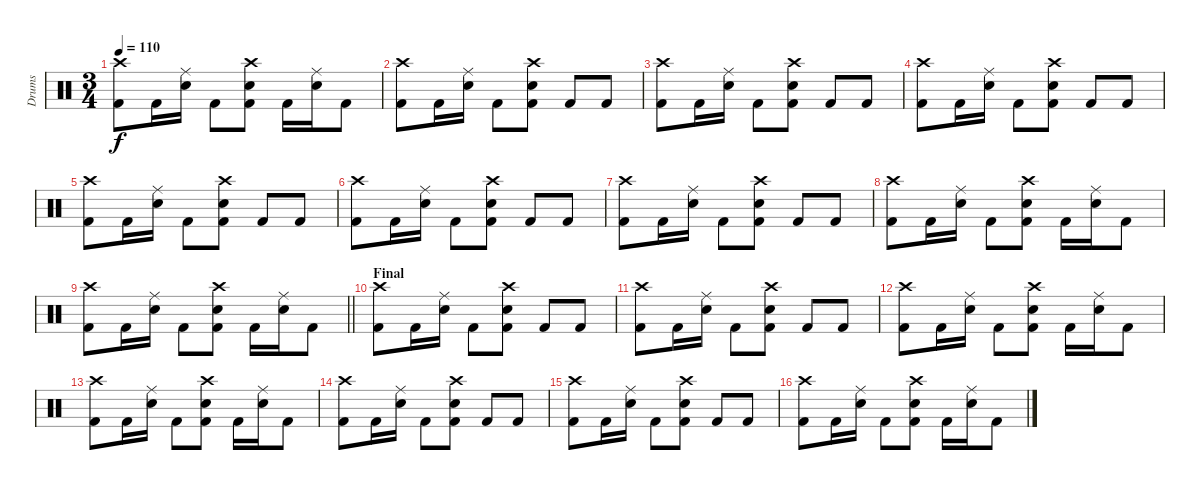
\track ("Drums" "Drums") {instrument percussion}
\staff {score}
\articulation defaults
\ts (3 4)
\tempo 110
\clef neutral
\ks c
("Crash high (hit)" "Kick (hit) 2").8{dy f} "Kick (hit) 2".16 ("Ride (middle)" "Snare (hit) 2").16 "Kick (hit) 2".8 ("Crash high (hit)" "Snare (hit) 2" "Kick (hit) 2").8 "Kick (hit) 2".16 ("Ride (middle)" "Snare (hit) 2").16 "Kick (hit) 2".8 |
("Crash high (hit)" "Kick (hit) 2").8 "Kick (hit) 2".16 ("Ride (middle)" "Snare (hit) 2").16 "Kick (hit) 2".8 ("Crash high (hit)" "Snare (hit) 2" "Kick (hit) 2").8 "Kick (hit) 2".8 "Kick (hit) 2".8 |
("Crash high (hit)" "Kick (hit) 2").8 "Kick (hit) 2".16 ("Ride (middle)" "Snare (hit) 2").16 "Kick (hit) 2".8 ("Crash high (hit)" "Snare (hit) 2" "Kick (hit) 2").8 "Kick (hit) 2".8 "Kick (hit) 2".8 |
("Crash high (hit)" "Kick (hit) 2").8 "Kick (hit) 2".16 ("Ride (middle)" "Snare (hit) 2").16 "Kick (hit) 2".8 ("Crash high (hit)" "Snare (hit) 2" "Kick (hit) 2").8 "Kick (hit) 2".8 "Kick (hit) 2".8 |
("Crash high (hit)" "Kick (hit) 2").8 "Kick (hit) 2".16 ("Ride (middle)" "Snare (hit) 2").16 "Kick (hit) 2".8 ("Crash high (hit)" "Snare (hit) 2" "Kick (hit) 2").8 "Kick (hit) 2".8 "Kick (hit) 2".8 |
("Crash high (hit)" "Kick (hit) 2").8 "Kick (hit) 2".16 ("Ride (middle)" "Snare (hit) 2").16 "Kick (hit) 2".8 ("Crash high (hit)" "Snare (hit) 2" "Kick (hit) 2").8 "Kick (hit) 2".8 "Kick (hit) 2".8 |
("Crash high (hit)" "Kick (hit) 2").8 "Kick (hit) 2".16 ("Ride (middle)" "Snare (hit) 2").16 "Kick (hit) 2".8 ("Crash high (hit)" "Snare (hit) 2" "Kick (hit) 2").8 "Kick (hit) 2".8 "Kick (hit) 2".8 |
("Crash high (hit)" "Kick (hit) 2").8 "Kick (hit) 2".16 ("Ride (middle)" "Snare (hit) 2").16 "Kick (hit) 2".8 ("Crash high (hit)" "Snare (hit) 2" "Kick (hit) 2").8 "Kick (hit) 2".16 ("Ride (middle)" "Snare (hit) 2").16 "Kick (hit) 2".8 |
\barLineRight lightlight
("Crash high (hit)" "Kick (hit) 2").8 "Kick (hit) 2".16 ("Ride (middle)" "Snare (hit) 2").16 "Kick (hit) 2".8 ("Crash high (hit)" "Snare (hit) 2" "Kick (hit) 2").8 "Kick (hit) 2".16 ("Ride (middle)" "Snare (hit) 2").16 "Kick (hit) 2".8 |
\section ("" "Final")
("Crash high (hit)" "Kick (hit) 2").8 "Kick (hit) 2".16 ("Ride (middle)" "Snare (hit) 2").16 "Kick (hit) 2".8 ("Crash high (hit)" "Snare (hit) 2" "Kick (hit) 2").8 "Kick (hit) 2".8 "Kick (hit) 2".8 |
("Crash high (hit)" "Kick (hit) 2").8 "Kick (hit) 2".16 ("Ride (middle)" "Snare (hit) 2").16 "Kick (hit) 2".8 ("Crash high (hit)" "Snare (hit) 2" "Kick (hit) 2").8 "Kick (hit) 2".8 "Kick (hit) 2".8 |
("Crash high (hit)" "Kick (hit) 2").8 "Kick (hit) 2".16 ("Ride (middle)" "Snare (hit) 2").16 "Kick (hit) 2".8 ("Crash high (hit)" "Snare (hit) 2" "Kick (hit) 2").8 "Kick (hit) 2".16 ("Ride (middle)" "Snare (hit) 2").16 "Kick (hit) 2".8 |
("Crash high (hit)" "Kick (hit) 2").8 "Kick (hit) 2".16 ("Ride (middle)" "Snare (hit) 2").16 "Kick (hit) 2".8 ("Crash high (hit)" "Snare (hit) 2" "Kick (hit) 2").8 "Kick (hit) 2".16 ("Ride (middle)" "Snare (hit) 2").16 "Kick (hit) 2".8 |
("Crash high (hit)" "Kick (hit) 2").8 "Kick (hit) 2".16 ("Ride (middle)" "Snare (hit) 2").16 "Kick (hit) 2".8 ("Crash high (hit)" "Snare (hit) 2" "Kick (hit) 2").8 "Kick (hit) 2".8 "Kick (hit) 2".8 |
("Crash high (hit)" "Kick (hit) 2").8 "Kick (hit) 2".16 ("Ride (middle)" "Snare (hit) 2").16 "Kick (hit) 2".8 ("Crash high (hit)" "Snare (hit) 2" "Kick (hit) 2").8 "Kick (hit) 2".8 "Kick (hit) 2".8 |
("Crash high (hit)" "Kick (hit) 2").8 "Kick (hit) 2".16 ("Ride (middle)" "Snare (hit) 2").16 "Kick (hit) 2".8 ("Crash high (hit)" "Snare (hit) 2" "Kick (hit) 2").8 "Kick (hit) 2".16 ("Ride (middle)" "Snare (hit) 2").16 "Kick (hit) 2".8
